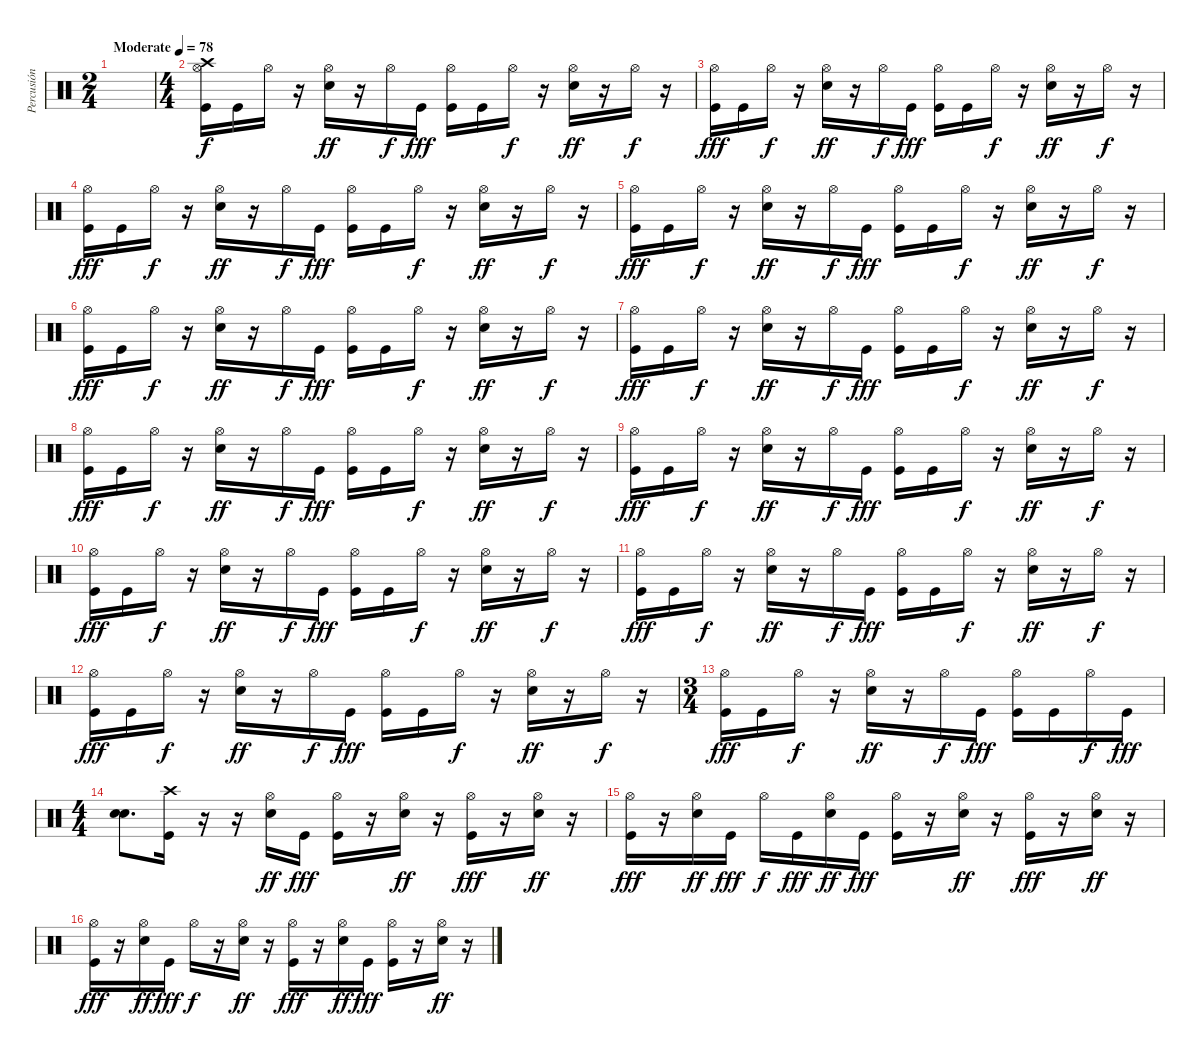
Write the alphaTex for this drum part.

\track ("Percusión" "Percusión") {instrument percussion}
\staff {score}
\articulation defaults
\ts (2 4)
\tempo (78 "Moderate")
\clef neutral
\ks c
|
\ts (4 4)
("Crash high (hit)" "Hi-Hat (open)" "Kick (hit)").16 "Kick (hit)".16 "Hi-Hat (open)".16{dy f} r.16 ("Hi-Hat (open)" "Snare (hit) 2").16{dy ff} r.16 "Hi-Hat (open)".16{dy f} "Kick (hit)".16{dy fff} ("Hi-Hat (open)" "Kick (hit)").16 "Kick (hit)".16 "Hi-Hat (open)".16{dy f} r.16 ("Hi-Hat (open)" "Snare (hit) 2").16{dy ff} r.16 "Hi-Hat (open)".16{dy f} r.16 |
("Hi-Hat (open)" "Kick (hit)").16{dy fff} "Kick (hit)".16 "Hi-Hat (open)".16{dy f} r.16 ("Hi-Hat (open)" "Snare (hit) 2").16{dy ff} r.16 "Hi-Hat (open)".16{dy f} "Kick (hit)".16{dy fff} ("Hi-Hat (open)" "Kick (hit)").16 "Kick (hit)".16 "Hi-Hat (open)".16{dy f} r.16 ("Hi-Hat (open)" "Snare (hit) 2").16{dy ff} r.16 "Hi-Hat (open)".16{dy f} r.16 |
("Hi-Hat (open)" "Kick (hit)").16{dy fff} "Kick (hit)".16 "Hi-Hat (open)".16{dy f} r.16 ("Hi-Hat (open)" "Snare (hit) 2").16{dy ff} r.16 "Hi-Hat (open)".16{dy f} "Kick (hit)".16{dy fff} ("Hi-Hat (open)" "Kick (hit)").16 "Kick (hit)".16 "Hi-Hat (open)".16{dy f} r.16 ("Hi-Hat (open)" "Snare (hit) 2").16{dy ff} r.16 "Hi-Hat (open)".16{dy f} r.16 |
("Hi-Hat (open)" "Kick (hit)").16{dy fff} "Kick (hit)".16 "Hi-Hat (open)".16{dy f} r.16 ("Hi-Hat (open)" "Snare (hit) 2").16{dy ff} r.16 "Hi-Hat (open)".16{dy f} "Kick (hit)".16{dy fff} ("Hi-Hat (open)" "Kick (hit)").16 "Kick (hit)".16 "Hi-Hat (open)".16{dy f} r.16 ("Hi-Hat (open)" "Snare (hit) 2").16{dy ff} r.16 "Hi-Hat (open)".16{dy f} r.16 |
("Hi-Hat (open)" "Kick (hit)").16{dy fff} "Kick (hit)".16 "Hi-Hat (open)".16{dy f} r.16 ("Hi-Hat (open)" "Snare (hit) 2").16{dy ff} r.16 "Hi-Hat (open)".16{dy f} "Kick (hit)".16{dy fff} ("Hi-Hat (open)" "Kick (hit)").16 "Kick (hit)".16 "Hi-Hat (open)".16{dy f} r.16 ("Hi-Hat (open)" "Snare (hit) 2").16{dy ff} r.16 "Hi-Hat (open)".16{dy f} r.16 |
("Hi-Hat (open)" "Kick (hit)").16{dy fff} "Kick (hit)".16 "Hi-Hat (open)".16{dy f} r.16 ("Hi-Hat (open)" "Snare (hit) 2").16{dy ff} r.16 "Hi-Hat (open)".16{dy f} "Kick (hit)".16{dy fff} ("Hi-Hat (open)" "Kick (hit)").16 "Kick (hit)".16 "Hi-Hat (open)".16{dy f} r.16 ("Hi-Hat (open)" "Snare (hit) 2").16{dy ff} r.16 "Hi-Hat (open)".16{dy f} r.16 |
("Hi-Hat (open)" "Kick (hit)").16{dy fff} "Kick (hit)".16 "Hi-Hat (open)".16{dy f} r.16 ("Hi-Hat (open)" "Snare (hit) 2").16{dy ff} r.16 "Hi-Hat (open)".16{dy f} "Kick (hit)".16{dy fff} ("Hi-Hat (open)" "Kick (hit)").16 "Kick (hit)".16 "Hi-Hat (open)".16{dy f} r.16 ("Hi-Hat (open)" "Snare (hit) 2").16{dy ff} r.16 "Hi-Hat (open)".16{dy f} r.16 |
("Hi-Hat (open)" "Kick (hit)").16{dy fff} "Kick (hit)".16 "Hi-Hat (open)".16{dy f} r.16 ("Hi-Hat (open)" "Snare (hit) 2").16{dy ff} r.16 "Hi-Hat (open)".16{dy f} "Kick (hit)".16{dy fff} ("Hi-Hat (open)" "Kick (hit)").16 "Kick (hit)".16 "Hi-Hat (open)".16{dy f} r.16 ("Hi-Hat (open)" "Snare (hit) 2").16{dy ff} r.16 "Hi-Hat (open)".16{dy f} r.16 |
("Hi-Hat (open)" "Kick (hit)").16{dy fff} "Kick (hit)".16 "Hi-Hat (open)".16{dy f} r.16 ("Hi-Hat (open)" "Snare (hit) 2").16{dy ff} r.16 "Hi-Hat (open)".16{dy f} "Kick (hit)".16{dy fff} ("Hi-Hat (open)" "Kick (hit)").16 "Kick (hit)".16 "Hi-Hat (open)".16{dy f} r.16 ("Hi-Hat (open)" "Snare (hit) 2").16{dy ff} r.16 "Hi-Hat (open)".16{dy f} r.16 |
("Hi-Hat (open)" "Kick (hit)").16{dy fff} "Kick (hit)".16 "Hi-Hat (open)".16{dy f} r.16 ("Hi-Hat (open)" "Snare (hit) 2").16{dy ff} r.16 "Hi-Hat (open)".16{dy f} "Kick (hit)".16{dy fff} ("Hi-Hat (open)" "Kick (hit)").16 "Kick (hit)".16 "Hi-Hat (open)".16{dy f} r.16 ("Hi-Hat (open)" "Snare (hit) 2").16{dy ff} r.16 "Hi-Hat (open)".16{dy f} r.16 |
("Hi-Hat (open)" "Kick (hit)").16{dy fff} "Kick (hit)".16 "Hi-Hat (open)".16{dy f} r.16 ("Hi-Hat (open)" "Snare (hit) 2").16{dy ff} r.16 "Hi-Hat (open)".16{dy f} "Kick (hit)".16{dy fff} ("Hi-Hat (open)" "Kick (hit)").16 "Kick (hit)".16 "Hi-Hat (open)".16{dy f} r.16 ("Hi-Hat (open)" "Snare (hit) 2").16{dy ff} r.16 "Hi-Hat (open)".16{dy f} r.16 |
\ts (3 4)
("Hi-Hat (open)" "Kick (hit)").16{dy fff} "Kick (hit)".16 "Hi-Hat (open)".16{dy f} r.16 ("Hi-Hat (open)" "Snare (hit) 2").16{dy ff} r.16 "Hi-Hat (open)".16{dy f} "Kick (hit)".16{dy fff} ("Hi-Hat (open)" "Kick (hit)").16 "Kick (hit)".16 "Hi-Hat (open)".16{dy f} "Kick (hit)".16{dy fff} |
\ts (4 4)
("Snare (hit) 2" "Snare (hit) 2").8{d} ("Crash high (hit)" "Kick (hit)").16 r.16 r.16 ("Hi-Hat (open)" "Snare (hit) 2").16{dy ff} "Kick (hit)".16{dy fff} ("Hi-Hat (open)" "Kick (hit)").16 r.16 ("Hi-Hat (open)" "Snare (hit) 2").16{dy ff} r.16 ("Hi-Hat (open)" "Kick (hit)").16{dy fff} r.16 ("Hi-Hat (open)" "Snare (hit) 2").16{dy ff} r.16 |
("Hi-Hat (open)" "Kick (hit)").16{dy fff} r.16 ("Hi-Hat (open)" "Snare (hit) 2").16{dy ff} "Kick (hit)".16{dy fff} "Hi-Hat (open)".16{dy f} "Kick (hit)".16{dy fff} ("Hi-Hat (open)" "Snare (hit) 2").16{dy ff} "Kick (hit)".16{dy fff} ("Hi-Hat (open)" "Kick (hit)").16 r.16 ("Hi-Hat (open)" "Snare (hit) 2").16{dy ff} r.16 ("Hi-Hat (open)" "Kick (hit)").16{dy fff} r.16 ("Hi-Hat (open)" "Snare (hit) 2").16{dy ff} r.16 |
("Hi-Hat (open)" "Kick (hit)").16{dy fff} r.16 ("Hi-Hat (open)" "Snare (hit) 2").16{dy ff} "Kick (hit)".16{dy fff} "Hi-Hat (open)".16{dy f} r.16 ("Hi-Hat (open)" "Snare (hit) 2").16{dy ff} r.16 ("Hi-Hat (open)" "Kick (hit)").16{dy fff} r.16 ("Hi-Hat (open)" "Snare (hit) 2").16{dy ff} "Kick (hit)".16{dy fff} ("Hi-Hat (open)" "Kick (hit)").16 r.16 ("Hi-Hat (open)" "Snare (hit) 2").16{dy ff} r.16
